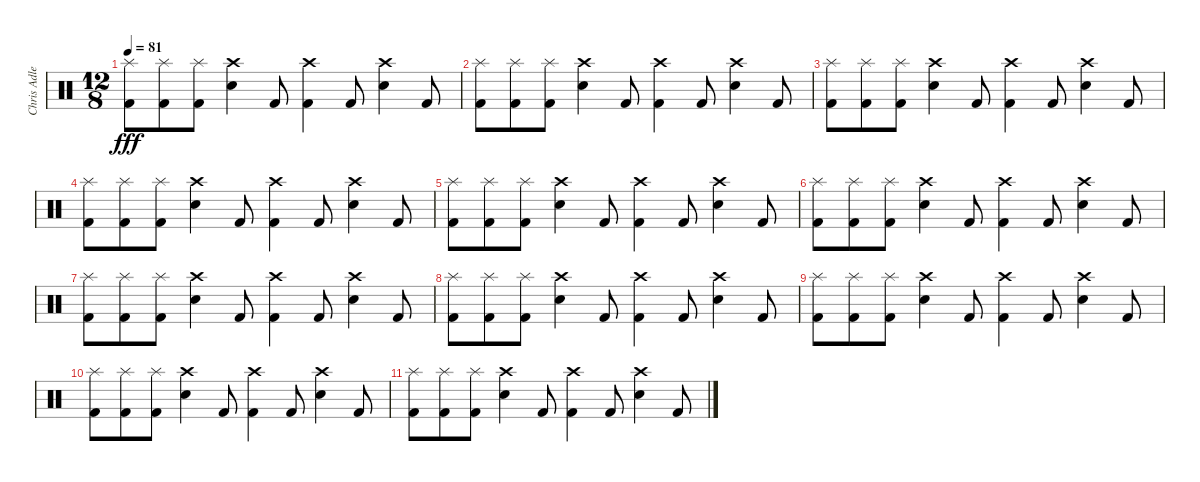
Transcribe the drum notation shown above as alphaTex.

\track ("Chris Adler" "Chris Adle") {instrument percussion}
\staff {score}
\articulation defaults
\ts (12 8)
\tempo 81
\clef neutral
\ks c
("Splash (hit)" "Kick (hit) 2").8{dy fff} ("Splash (hit)" "Kick (hit) 2").8 ("Splash (hit)" "Kick (hit) 2").8 ("Crash high (hit)" "Electric Snare (hit)").4 "Kick (hit) 2".8 ("Crash high (hit)" "Kick (hit) 2").4 "Kick (hit) 2".8 ("Crash high (hit)" "Electric Snare (hit)").4 "Kick (hit) 2".8 |
("Splash (hit)" "Kick (hit) 2").8 ("Splash (hit)" "Kick (hit) 2").8 ("Splash (hit)" "Kick (hit) 2").8 ("Crash high (hit)" "Electric Snare (hit)").4 "Kick (hit) 2".8 ("Crash high (hit)" "Kick (hit) 2").4 "Kick (hit) 2".8 ("Crash high (hit)" "Electric Snare (hit)").4 "Kick (hit) 2".8 |
("Splash (hit)" "Kick (hit) 2").8 ("Splash (hit)" "Kick (hit) 2").8 ("Splash (hit)" "Kick (hit) 2").8 ("Crash high (hit)" "Electric Snare (hit)").4 "Kick (hit) 2".8 ("Crash high (hit)" "Kick (hit) 2").4 "Kick (hit) 2".8 ("Crash high (hit)" "Electric Snare (hit)").4 "Kick (hit) 2".8 |
("Splash (hit)" "Kick (hit) 2").8 ("Splash (hit)" "Kick (hit) 2").8 ("Splash (hit)" "Kick (hit) 2").8 ("Crash high (hit)" "Electric Snare (hit)").4 "Kick (hit) 2".8 ("Crash high (hit)" "Kick (hit) 2").4 "Kick (hit) 2".8 ("Crash high (hit)" "Electric Snare (hit)").4 "Kick (hit) 2".8 |
("Splash (hit)" "Kick (hit) 2").8 ("Splash (hit)" "Kick (hit) 2").8 ("Splash (hit)" "Kick (hit) 2").8 ("Crash high (hit)" "Electric Snare (hit)").4 "Kick (hit) 2".8 ("Crash high (hit)" "Kick (hit) 2").4 "Kick (hit) 2".8 ("Crash high (hit)" "Electric Snare (hit)").4 "Kick (hit) 2".8 |
("Splash (hit)" "Kick (hit) 2").8{volume 8} ("Splash (hit)" "Kick (hit) 2").8 ("Splash (hit)" "Kick (hit) 2").8 ("Crash high (hit)" "Electric Snare (hit)").4 "Kick (hit) 2".8 ("Crash high (hit)" "Kick (hit) 2").4 "Kick (hit) 2".8 ("Crash high (hit)" "Electric Snare (hit)").4 "Kick (hit) 2".8 |
("Splash (hit)" "Kick (hit) 2").8 ("Splash (hit)" "Kick (hit) 2").8 ("Splash (hit)" "Kick (hit) 2").8 ("Crash high (hit)" "Electric Snare (hit)").4 "Kick (hit) 2".8 ("Crash high (hit)" "Kick (hit) 2").4 "Kick (hit) 2".8 ("Crash high (hit)" "Electric Snare (hit)").4 "Kick (hit) 2".8 |
("Splash (hit)" "Kick (hit) 2").8 ("Splash (hit)" "Kick (hit) 2").8 ("Splash (hit)" "Kick (hit) 2").8 ("Crash high (hit)" "Electric Snare (hit)").4 "Kick (hit) 2".8 ("Crash high (hit)" "Kick (hit) 2").4 "Kick (hit) 2".8 ("Crash high (hit)" "Electric Snare (hit)").4 "Kick (hit) 2".8 |
("Splash (hit)" "Kick (hit) 2").8{volume 0} ("Splash (hit)" "Kick (hit) 2").8 ("Splash (hit)" "Kick (hit) 2").8 ("Crash high (hit)" "Electric Snare (hit)").4 "Kick (hit) 2".8 ("Crash high (hit)" "Kick (hit) 2").4 "Kick (hit) 2".8 ("Crash high (hit)" "Electric Snare (hit)").4 "Kick (hit) 2".8 |
("Splash (hit)" "Kick (hit) 2").8 ("Splash (hit)" "Kick (hit) 2").8 ("Splash (hit)" "Kick (hit) 2").8 ("Crash high (hit)" "Electric Snare (hit)").4 "Kick (hit) 2".8 ("Crash high (hit)" "Kick (hit) 2").4 "Kick (hit) 2".8 ("Crash high (hit)" "Electric Snare (hit)").4 "Kick (hit) 2".8 |
("Splash (hit)" "Kick (hit) 2").8 ("Splash (hit)" "Kick (hit) 2").8 ("Splash (hit)" "Kick (hit) 2").8 ("Crash high (hit)" "Electric Snare (hit)").4 "Kick (hit) 2".8 ("Crash high (hit)" "Kick (hit) 2").4 "Kick (hit) 2".8 ("Crash high (hit)" "Electric Snare (hit)").4 "Kick (hit) 2".8
